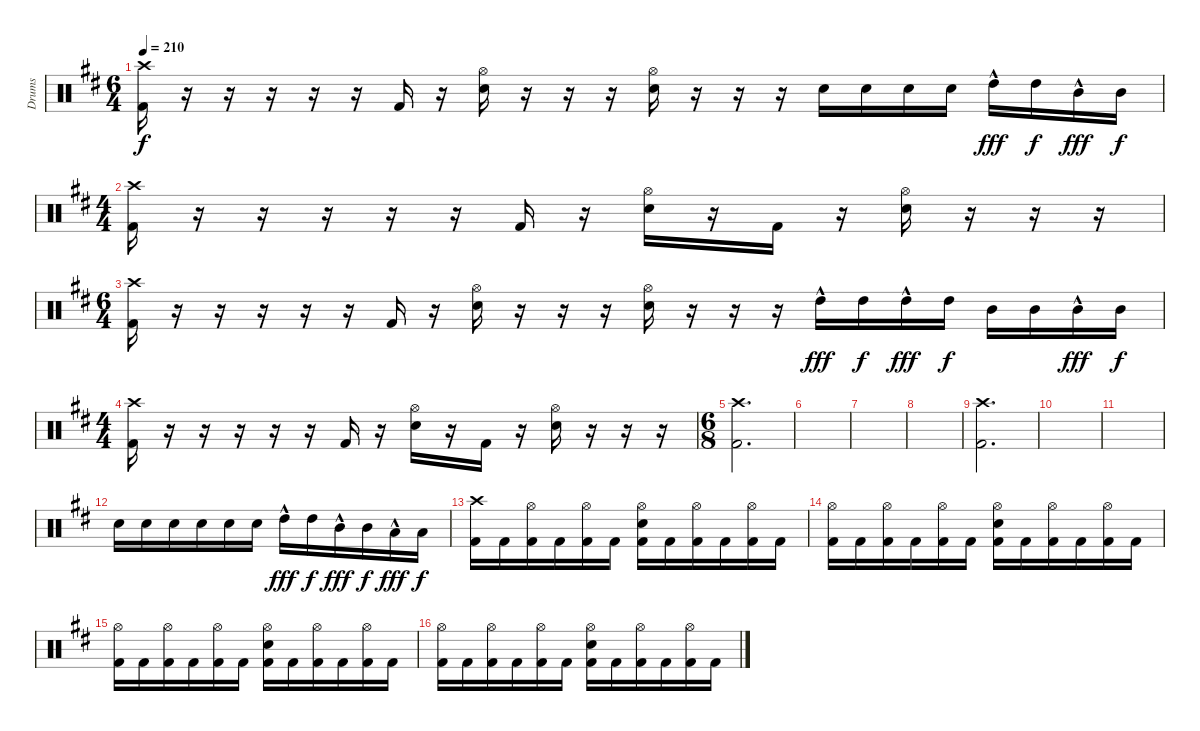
\track ("Drums" "Drums") {instrument percussion}
\staff {score}
\articulation defaults
\ts (6 4)
\tempo 210
\clef neutral
\ks bminor
("Kick (hit) 2" "Crash high (hit)").16{dy f} r.16 r.16 r.16 r.16 r.16 "Kick (hit) 2".16 r.16 ("Electric Snare (hit)" "Hi-Hat (open)").16 r.16 r.16 r.16 ("Electric Snare (hit)" "Hi-Hat (open)").16 r.16 r.16 r.16 "Electric Snare (hit)".16 "Electric Snare (hit)".16 "Electric Snare (hit)".16 "Electric Snare (hit)".16 "High Tom (hit)"{hac}.16{dy fff} "High Tom (hit)".16{dy f} "Mid Tom (hit)"{hac}.16{dy fff} "Mid Tom (hit)".16{dy f} |
\ts (4 4)
("Kick (hit) 2" "Crash high (hit)").16 r.16 r.16 r.16 r.16 r.16 "Kick (hit) 2".16 r.16 ("Electric Snare (hit)" "Hi-Hat (open)").16 r.16 "Kick (hit) 2".16 r.16 ("Electric Snare (hit)" "Hi-Hat (open)").16 r.16 r.16 r.16 |
\ts (6 4)
("Kick (hit) 2" "Crash high (hit)").16 r.16 r.16 r.16 r.16 r.16 "Kick (hit) 2".16 r.16 ("Electric Snare (hit)" "Hi-Hat (open)").16 r.16 r.16 r.16 ("Electric Snare (hit)" "Hi-Hat (open)").16 r.16 r.16 r.16 "High Tom (hit)"{hac}.16{dy fff} "High Tom (hit)".16{dy f} "High Tom (hit)"{hac}.16{dy fff} "High Tom (hit)".16{dy f} "Mid Tom (hit)".16 "Mid Tom (hit)".16 "Mid Tom (hit)"{hac}.16{dy fff} "Mid Tom (hit)".16{dy f} |
\ts (4 4)
("Kick (hit) 2" "Crash high (hit)").16 r.16 r.16 r.16 r.16 r.16 "Kick (hit) 2".16 r.16 ("Electric Snare (hit)" "Hi-Hat (open)").16 r.16 "Kick (hit) 2".16 r.16 ("Electric Snare (hit)" "Hi-Hat (open)").16 r.16 r.16 r.16 |
\ts (6 8)
("Kick (hit) 2" "Crash high (hit)").2{d} |
|
|
|
("Kick (hit) 2" "Crash high (hit)").2{d} |
|
|
"Electric Snare (hit)".16 "Electric Snare (hit)".16 "Electric Snare (hit)".16 "Electric Snare (hit)".16 "Electric Snare (hit)".16 "Electric Snare (hit)".16 "High Tom (hit)"{hac}.16{dy fff} "High Tom (hit)".16{dy f} "Mid Tom (hit)"{hac}.16{dy fff} "Mid Tom (hit)".16{dy f} "Low Tom (hit)"{hac}.16{dy fff} "Low Tom (hit)".16{dy f} |
("Kick (hit) 2" "Crash high (hit)").16 "Kick (hit) 2".16 ("Kick (hit) 2" "Hi-Hat (open)").16 "Kick (hit) 2".16 ("Kick (hit) 2" "Hi-Hat (open)").16 "Kick (hit) 2".16 ("Kick (hit) 2" "Electric Snare (hit)" "Hi-Hat (open)").16 "Kick (hit) 2".16 ("Kick (hit) 2" "Hi-Hat (open)").16 "Kick (hit) 2".16 ("Kick (hit) 2" "Hi-Hat (open)").16 "Kick (hit) 2".16 |
("Kick (hit) 2" "Hi-Hat (open)").16 "Kick (hit) 2".16 ("Kick (hit) 2" "Hi-Hat (open)").16 "Kick (hit) 2".16 ("Kick (hit) 2" "Hi-Hat (open)").16 "Kick (hit) 2".16 ("Kick (hit) 2" "Electric Snare (hit)" "Hi-Hat (open)").16 "Kick (hit) 2".16 ("Kick (hit) 2" "Hi-Hat (open)").16 "Kick (hit) 2".16 ("Kick (hit) 2" "Hi-Hat (open)").16 "Kick (hit) 2".16 |
("Kick (hit) 2" "Hi-Hat (open)").16 "Kick (hit) 2".16 ("Kick (hit) 2" "Hi-Hat (open)").16 "Kick (hit) 2".16 ("Kick (hit) 2" "Hi-Hat (open)").16 "Kick (hit) 2".16 ("Kick (hit) 2" "Electric Snare (hit)" "Hi-Hat (open)").16 "Kick (hit) 2".16 ("Kick (hit) 2" "Hi-Hat (open)").16 "Kick (hit) 2".16 ("Kick (hit) 2" "Hi-Hat (open)").16 "Kick (hit) 2".16 |
("Kick (hit) 2" "Hi-Hat (open)").16 "Kick (hit) 2".16 ("Kick (hit) 2" "Hi-Hat (open)").16 "Kick (hit) 2".16 ("Kick (hit) 2" "Hi-Hat (open)").16 "Kick (hit) 2".16 ("Kick (hit) 2" "Electric Snare (hit)" "Hi-Hat (open)").16 "Kick (hit) 2".16 ("Kick (hit) 2" "Hi-Hat (open)").16 "Kick (hit) 2".16 ("Kick (hit) 2" "Hi-Hat (open)").16 "Kick (hit) 2".16
